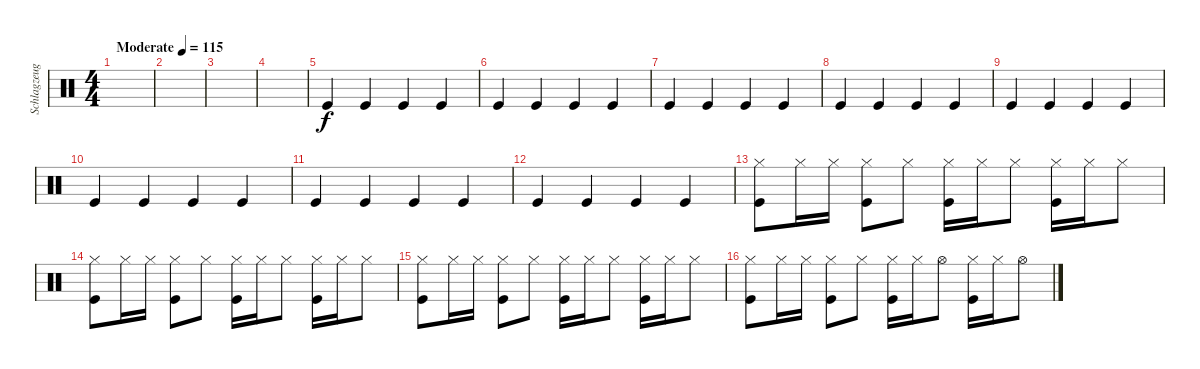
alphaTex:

\track ("Schlagzeug" "Schlagzeug") {instrument percussion}
\staff {score}
\articulation defaults
\ts (4 4)
\tempo (115 "Moderate")
\clef neutral
\ks c
|
|
|
|
"Kick (hit)".4 "Kick (hit)".4 "Kick (hit)".4 "Kick (hit)".4 |
"Kick (hit)".4 "Kick (hit)".4 "Kick (hit)".4 "Kick (hit)".4 |
"Kick (hit)".4 "Kick (hit)".4 "Kick (hit)".4 "Kick (hit)".4 |
"Kick (hit)".4 "Kick (hit)".4 "Kick (hit)".4 "Kick (hit)".4 |
"Kick (hit)".4 "Kick (hit)".4 "Kick (hit)".4 "Kick (hit)".4 |
"Kick (hit)".4 "Kick (hit)".4 "Kick (hit)".4 "Kick (hit)".4 |
"Kick (hit)".4 "Kick (hit)".4 "Kick (hit)".4 "Kick (hit)".4 |
"Kick (hit)".4 "Kick (hit)".4 "Kick (hit)".4 "Kick (hit)".4 |
("Kick (hit)" "Hi-Hat (closed)").8 "Hi-Hat (closed)".16 "Hi-Hat (closed)".16 ("Kick (hit)" "Hi-Hat (closed)").8 "Hi-Hat (closed)".8 ("Kick (hit)" "Hi-Hat (closed)").16 "Hi-Hat (closed)".16 "Hi-Hat (closed)".8 ("Kick (hit)" "Hi-Hat (closed)").16 "Hi-Hat (closed)".16 "Hi-Hat (closed)".8 |
("Kick (hit)" "Hi-Hat (closed)").8 "Hi-Hat (closed)".16 "Hi-Hat (closed)".16 ("Kick (hit)" "Hi-Hat (closed)").8 "Hi-Hat (closed)".8 ("Kick (hit)" "Hi-Hat (closed)").16 "Hi-Hat (closed)".16 "Hi-Hat (closed)".8 ("Kick (hit)" "Hi-Hat (closed)").16 "Hi-Hat (closed)".16 "Hi-Hat (closed)".8 |
("Kick (hit)" "Hi-Hat (closed)").8 "Hi-Hat (closed)".16 "Hi-Hat (closed)".16 ("Kick (hit)" "Hi-Hat (closed)").8 "Hi-Hat (closed)".8 ("Kick (hit)" "Hi-Hat (closed)").16 "Hi-Hat (closed)".16 "Hi-Hat (closed)".8 ("Kick (hit)" "Hi-Hat (closed)").16 "Hi-Hat (closed)".16 "Hi-Hat (closed)".8 |
("Kick (hit)" "Hi-Hat (closed)").8 "Hi-Hat (closed)".16 "Hi-Hat (closed)".16 ("Kick (hit)" "Hi-Hat (closed)").8 "Hi-Hat (closed)".8 ("Kick (hit)" "Hi-Hat (closed)").16 "Hi-Hat (closed)".16 "Hi-Hat (open)".8 ("Kick (hit)" "Hi-Hat (closed)").16 "Hi-Hat (closed)".16 "Hi-Hat (open)".8
